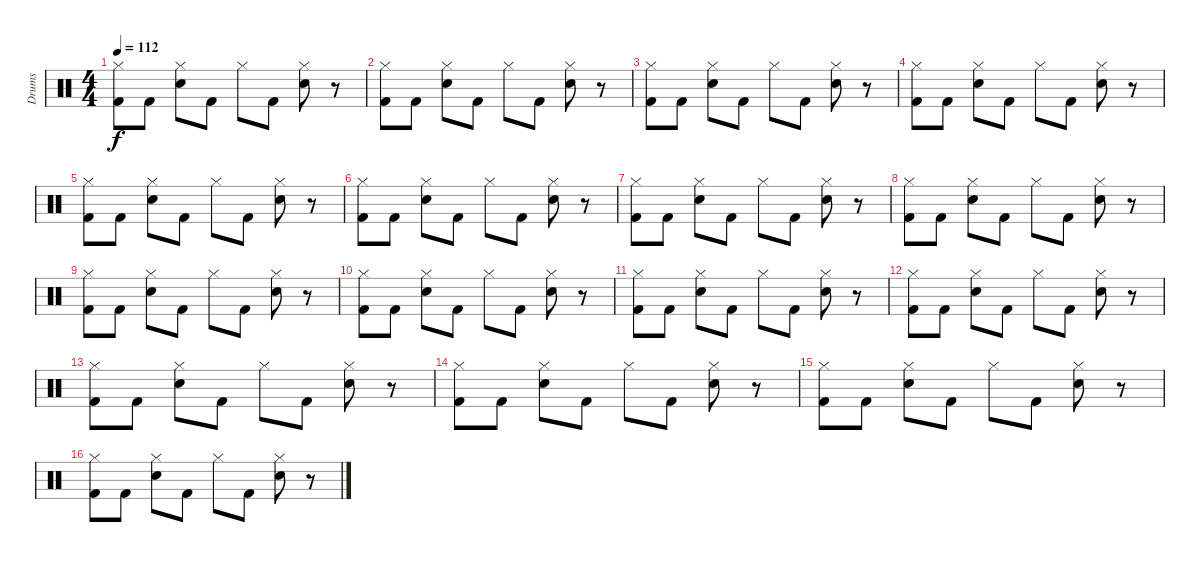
\track ("Drums" "Drums") {instrument percussion}
\staff {score}
\articulation defaults
\ts (4 4)
\tempo 112
\clef neutral
\ks c
("Hi-Hat (closed)" "Kick (hit) 2").8{dy f} "Kick (hit) 2".8 ("Hi-Hat (closed)" "Snare (hit) 2").8 "Kick (hit) 2".8 "Hi-Hat (closed)".8 "Kick (hit) 2".8 ("Snare (hit) 2" "Hi-Hat (closed)").8 r.8 |
("Hi-Hat (closed)" "Kick (hit) 2").8 "Kick (hit) 2".8 ("Hi-Hat (closed)" "Snare (hit) 2").8 "Kick (hit) 2".8 "Hi-Hat (closed)".8 "Kick (hit) 2".8 ("Snare (hit) 2" "Hi-Hat (closed)").8 r.8 |
("Hi-Hat (closed)" "Kick (hit) 2").8 "Kick (hit) 2".8 ("Hi-Hat (closed)" "Snare (hit) 2").8 "Kick (hit) 2".8 "Hi-Hat (closed)".8 "Kick (hit) 2".8 ("Snare (hit) 2" "Hi-Hat (closed)").8 r.8 |
("Hi-Hat (closed)" "Kick (hit) 2").8 "Kick (hit) 2".8 ("Hi-Hat (closed)" "Snare (hit) 2").8 "Kick (hit) 2".8 "Hi-Hat (closed)".8 "Kick (hit) 2".8 ("Snare (hit) 2" "Hi-Hat (closed)").8 r.8 |
("Hi-Hat (closed)" "Kick (hit) 2").8 "Kick (hit) 2".8 ("Hi-Hat (closed)" "Snare (hit) 2").8 "Kick (hit) 2".8 "Hi-Hat (closed)".8 "Kick (hit) 2".8 ("Snare (hit) 2" "Hi-Hat (closed)").8 r.8 |
("Hi-Hat (closed)" "Kick (hit) 2").8 "Kick (hit) 2".8 ("Hi-Hat (closed)" "Snare (hit) 2").8 "Kick (hit) 2".8 "Hi-Hat (closed)".8 "Kick (hit) 2".8 ("Snare (hit) 2" "Hi-Hat (closed)").8 r.8 |
("Hi-Hat (closed)" "Kick (hit) 2").8 "Kick (hit) 2".8 ("Hi-Hat (closed)" "Snare (hit) 2").8 "Kick (hit) 2".8 "Hi-Hat (closed)".8 "Kick (hit) 2".8 ("Snare (hit) 2" "Hi-Hat (closed)").8 r.8 |
("Hi-Hat (closed)" "Kick (hit) 2").8 "Kick (hit) 2".8 ("Hi-Hat (closed)" "Snare (hit) 2").8 "Kick (hit) 2".8 "Hi-Hat (closed)".8 "Kick (hit) 2".8 ("Snare (hit) 2" "Hi-Hat (closed)").8 r.8 |
("Hi-Hat (closed)" "Kick (hit) 2").8 "Kick (hit) 2".8 ("Hi-Hat (closed)" "Snare (hit) 2").8 "Kick (hit) 2".8 "Hi-Hat (closed)".8 "Kick (hit) 2".8 ("Snare (hit) 2" "Hi-Hat (closed)").8 r.8 |
("Hi-Hat (closed)" "Kick (hit) 2").8 "Kick (hit) 2".8 ("Hi-Hat (closed)" "Snare (hit) 2").8 "Kick (hit) 2".8 "Hi-Hat (closed)".8 "Kick (hit) 2".8 ("Snare (hit) 2" "Hi-Hat (closed)").8 r.8 |
("Hi-Hat (closed)" "Kick (hit) 2").8 "Kick (hit) 2".8 ("Hi-Hat (closed)" "Snare (hit) 2").8 "Kick (hit) 2".8 "Hi-Hat (closed)".8 "Kick (hit) 2".8 ("Snare (hit) 2" "Hi-Hat (closed)").8 r.8 |
("Hi-Hat (closed)" "Kick (hit) 2").8 "Kick (hit) 2".8 ("Hi-Hat (closed)" "Snare (hit) 2").8 "Kick (hit) 2".8 "Hi-Hat (closed)".8 "Kick (hit) 2".8 ("Snare (hit) 2" "Hi-Hat (closed)").8 r.8 |
("Hi-Hat (closed)" "Kick (hit) 2").8 "Kick (hit) 2".8 ("Hi-Hat (closed)" "Snare (hit) 2").8 "Kick (hit) 2".8 "Hi-Hat (closed)".8 "Kick (hit) 2".8 ("Snare (hit) 2" "Hi-Hat (closed)").8 r.8 |
("Hi-Hat (closed)" "Kick (hit) 2").8 "Kick (hit) 2".8 ("Hi-Hat (closed)" "Snare (hit) 2").8 "Kick (hit) 2".8 "Hi-Hat (closed)".8 "Kick (hit) 2".8 ("Snare (hit) 2" "Hi-Hat (closed)").8 r.8 |
("Hi-Hat (closed)" "Kick (hit) 2").8 "Kick (hit) 2".8 ("Hi-Hat (closed)" "Snare (hit) 2").8 "Kick (hit) 2".8 "Hi-Hat (closed)".8 "Kick (hit) 2".8 ("Snare (hit) 2" "Hi-Hat (closed)").8 r.8 |
("Hi-Hat (closed)" "Kick (hit) 2").8 "Kick (hit) 2".8 ("Hi-Hat (closed)" "Snare (hit) 2").8 "Kick (hit) 2".8 "Hi-Hat (closed)".8 "Kick (hit) 2".8 ("Snare (hit) 2" "Hi-Hat (closed)").8 r.8
